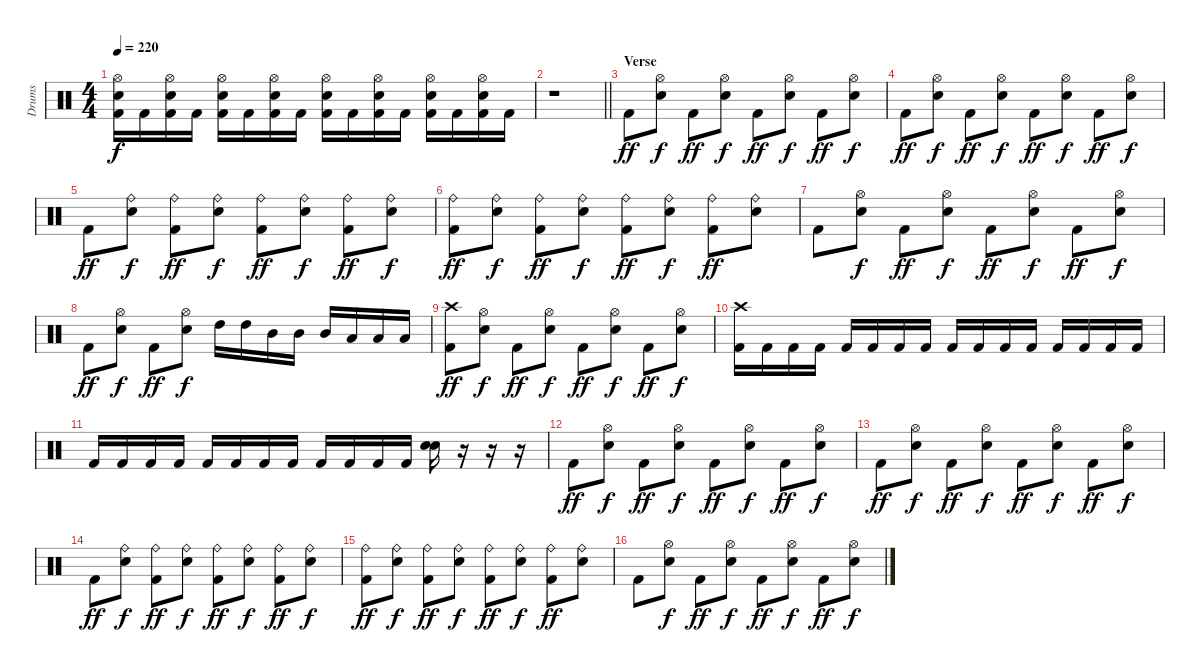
\track ("Drums" "Drums") {instrument percussion}
\staff {score}
\articulation defaults
\ts (4 4)
\tempo 220
\clef neutral
\ks c
("Hi-Hat (open)" "Electric Snare (hit)" "Kick (hit) 2").16{dy f} "Kick (hit) 2".16 ("Hi-Hat (open)" "Electric Snare (hit)" "Kick (hit) 2").16 "Kick (hit) 2".16 ("Hi-Hat (open)" "Electric Snare (hit)" "Kick (hit) 2").16 "Kick (hit) 2".16 ("Hi-Hat (open)" "Electric Snare (hit)" "Kick (hit) 2").16 "Kick (hit) 2".16 ("Hi-Hat (open)" "Electric Snare (hit)" "Kick (hit) 2").16 "Kick (hit) 2".16 ("Hi-Hat (open)" "Electric Snare (hit)" "Kick (hit) 2").16 "Kick (hit) 2".16 ("Hi-Hat (open)" "Electric Snare (hit)" "Kick (hit) 2").16 "Kick (hit) 2".16 ("Hi-Hat (open)" "Electric Snare (hit)" "Kick (hit) 2").16 "Kick (hit) 2".16 |
\barLineRight lightlight
r.1 |
\section ("" "Verse")
"Kick (hit) 2".8{dy ff} ("Hi-Hat (open)" "Electric Snare (hit)").8{dy f} "Kick (hit) 2".8{dy ff} ("Hi-Hat (open)" "Electric Snare (hit)").8{dy f} "Kick (hit) 2".8{dy ff} ("Hi-Hat (open)" "Electric Snare (hit)").8{dy f} "Kick (hit) 2".8{dy ff} ("Hi-Hat (open)" "Electric Snare (hit)").8{dy f} |
"Kick (hit) 2".8{dy ff} ("Hi-Hat (open)" "Electric Snare (hit)").8{dy f} "Kick (hit) 2".8{dy ff} ("Hi-Hat (open)" "Electric Snare (hit)").8{dy f} "Kick (hit) 2".8{dy ff} ("Hi-Hat (open)" "Electric Snare (hit)").8{dy f} "Kick (hit) 2".8{dy ff} ("Hi-Hat (open)" "Electric Snare (hit)").8{dy f} |
"Kick (hit) 2".8{dy ff} ("Ride (bell)" "Electric Snare (hit)").8{dy f} ("Ride (bell)" "Kick (hit) 2").8{dy ff} ("Ride (bell)" "Electric Snare (hit)").8{dy f} ("Ride (bell)" "Kick (hit) 2").8{dy ff} ("Ride (bell)" "Electric Snare (hit)").8{dy f} ("Ride (bell)" "Kick (hit) 2").8{dy ff} ("Ride (bell)" "Electric Snare (hit)").8{dy f} |
("Ride (bell)" "Kick (hit) 2").8{dy ff} ("Ride (bell)" "Electric Snare (hit)").8{dy f} ("Ride (bell)" "Kick (hit) 2").8{dy ff} ("Ride (bell)" "Electric Snare (hit)").8{dy f} ("Ride (bell)" "Kick (hit) 2").8{dy ff} ("Ride (bell)" "Electric Snare (hit)").8{dy f} ("Ride (bell)" "Kick (hit) 2").8{dy ff} ("Ride (bell)" "Electric Snare (hit)").8 |
"Kick (hit) 2".8 ("Hi-Hat (open)" "Electric Snare (hit)").8{dy f} "Kick (hit) 2".8{dy ff} ("Hi-Hat (open)" "Electric Snare (hit)").8{dy f} "Kick (hit) 2".8{dy ff} ("Hi-Hat (open)" "Electric Snare (hit)").8{dy f} "Kick (hit) 2".8{dy ff} ("Hi-Hat (open)" "Electric Snare (hit)").8{dy f} |
"Kick (hit) 2".8{dy ff} ("Hi-Hat (open)" "Electric Snare (hit)").8{dy f} "Kick (hit) 2".8{dy ff} ("Hi-Hat (open)" "Electric Snare (hit)").8{dy f} "High Tom (hit)".16 "High Tom (hit)".16 "Mid Tom (hit)".16 "Mid Tom (hit)".16 "Mid Tom (hit)".16 "Low Tom (hit)".16 "Low Tom (hit)".16 "Low Tom (hit)".16 |
("Crash high (hit)" "Kick (hit) 2").8{dy ff} ("Hi-Hat (open)" "Electric Snare (hit)").8{dy f} "Kick (hit) 2".8{dy ff} ("Hi-Hat (open)" "Electric Snare (hit)").8{dy f} "Kick (hit) 2".8{dy ff} ("Hi-Hat (open)" "Electric Snare (hit)").8{dy f} "Kick (hit) 2".8{dy ff} ("Hi-Hat (open)" "Electric Snare (hit)").8{dy f} |
("Crash high (hit)" "Kick (hit) 2").16 "Kick (hit) 2".16 "Kick (hit) 2".16 "Kick (hit) 2".16 "Kick (hit) 2".16 "Kick (hit) 2".16 "Kick (hit) 2".16 "Kick (hit) 2".16 "Kick (hit) 2".16 "Kick (hit) 2".16 "Kick (hit) 2".16 "Kick (hit) 2".16 "Kick (hit) 2".16 "Kick (hit) 2".16 "Kick (hit) 2".16 "Kick (hit) 2".16 |
"Kick (hit) 2".16 "Kick (hit) 2".16 "Kick (hit) 2".16 "Kick (hit) 2".16 "Kick (hit) 2".16 "Kick (hit) 2".16 "Kick (hit) 2".16 "Kick (hit) 2".16 "Kick (hit) 2".16 "Kick (hit) 2".16 "Kick (hit) 2".16 "Kick (hit) 2".16 ("Electric Snare (hit)" "Electric Snare (hit)").16 r.16 r.16 r.16 |
"Kick (hit) 2".8{dy ff} ("Hi-Hat (open)" "Electric Snare (hit)").8{dy f} "Kick (hit) 2".8{dy ff} ("Hi-Hat (open)" "Electric Snare (hit)").8{dy f} "Kick (hit) 2".8{dy ff} ("Hi-Hat (open)" "Electric Snare (hit)").8{dy f} "Kick (hit) 2".8{dy ff} ("Hi-Hat (open)" "Electric Snare (hit)").8{dy f} |
"Kick (hit) 2".8{dy ff} ("Hi-Hat (open)" "Electric Snare (hit)").8{dy f} "Kick (hit) 2".8{dy ff} ("Hi-Hat (open)" "Electric Snare (hit)").8{dy f} "Kick (hit) 2".8{dy ff} ("Hi-Hat (open)" "Electric Snare (hit)").8{dy f} "Kick (hit) 2".8{dy ff} ("Hi-Hat (open)" "Electric Snare (hit)").8{dy f} |
"Kick (hit) 2".8{dy ff} ("Ride (bell)" "Electric Snare (hit)").8{dy f} ("Ride (bell)" "Kick (hit) 2").8{dy ff} ("Ride (bell)" "Electric Snare (hit)").8{dy f} ("Ride (bell)" "Kick (hit) 2").8{dy ff} ("Ride (bell)" "Electric Snare (hit)").8{dy f} ("Ride (bell)" "Kick (hit) 2").8{dy ff} ("Ride (bell)" "Electric Snare (hit)").8{dy f} |
("Ride (bell)" "Kick (hit) 2").8{dy ff} ("Ride (bell)" "Electric Snare (hit)").8{dy f} ("Ride (bell)" "Kick (hit) 2").8{dy ff} ("Ride (bell)" "Electric Snare (hit)").8{dy f} ("Ride (bell)" "Kick (hit) 2").8{dy ff} ("Ride (bell)" "Electric Snare (hit)").8{dy f} ("Ride (bell)" "Kick (hit) 2").8{dy ff} ("Ride (bell)" "Electric Snare (hit)").8 |
"Kick (hit) 2".8 ("Hi-Hat (open)" "Electric Snare (hit)").8{dy f} "Kick (hit) 2".8{dy ff} ("Hi-Hat (open)" "Electric Snare (hit)").8{dy f} "Kick (hit) 2".8{dy ff} ("Hi-Hat (open)" "Electric Snare (hit)").8{dy f} "Kick (hit) 2".8{dy ff} ("Hi-Hat (open)" "Electric Snare (hit)").8{dy f}
